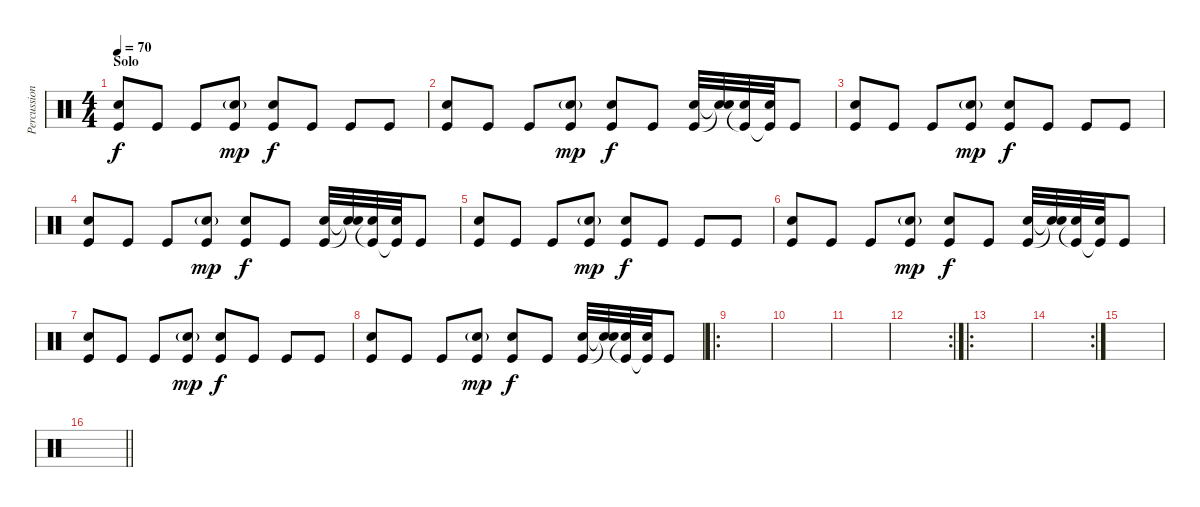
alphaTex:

\track ("Percussions" "Percussion") {instrument percussion}
\staff {score}
\articulation defaults
\ts (4 4)
\section ("" "Solo")
\tempo 70
\clef neutral
\ks c
("Kick (hit)" "Snare (hit) 2").8{dy f} "Kick (hit)".8 "Kick (hit)".8 ("Kick (hit)" "Snare (hit) 2"{g}).8{dy mp} ("Kick (hit)" "Snare (hit) 2").8{dy f} "Kick (hit)".8 "Kick (hit)".8 "Kick (hit)".8 |
("Kick (hit)" "Snare (hit) 2").8 "Kick (hit)".8 "Kick (hit)".8 ("Kick (hit)" "Snare (hit) 2"{g}).8{dy mp} ("Kick (hit)" "Snare (hit) 2").8{dy f} "Kick (hit)".8 ("Kick (hit)" "Snare (hit) 2").32 ("Snare (hit)"{t} "Snare (hit) 2"{t}).32 ("Kick (hit)"{t} "Snare (hit) 2").32 ("Kick (hit)"{t} "Snare (hit) 2").32 "Kick (hit)".8 |
("Kick (hit)" "Snare (hit) 2").8 "Kick (hit)".8 "Kick (hit)".8 ("Kick (hit)" "Snare (hit) 2"{g}).8{dy mp} ("Kick (hit)" "Snare (hit) 2").8{dy f} "Kick (hit)".8 "Kick (hit)".8 "Kick (hit)".8 |
("Kick (hit)" "Snare (hit) 2").8 "Kick (hit)".8 "Kick (hit)".8 ("Kick (hit)" "Snare (hit) 2"{g}).8{dy mp} ("Kick (hit)" "Snare (hit) 2").8{dy f} "Kick (hit)".8 ("Kick (hit)" "Snare (hit) 2").32 ("Snare (hit)"{t} "Snare (hit) 2"{t}).32 ("Kick (hit)"{t} "Snare (hit) 2").32 ("Kick (hit)"{t} "Snare (hit) 2").32 "Kick (hit)".8 |
("Kick (hit)" "Snare (hit) 2").8 "Kick (hit)".8 "Kick (hit)".8 ("Kick (hit)" "Snare (hit) 2"{g}).8{dy mp} ("Kick (hit)" "Snare (hit) 2").8{dy f} "Kick (hit)".8 "Kick (hit)".8 "Kick (hit)".8 |
("Kick (hit)" "Snare (hit) 2").8 "Kick (hit)".8 "Kick (hit)".8 ("Kick (hit)" "Snare (hit) 2"{g}).8{dy mp} ("Kick (hit)" "Snare (hit) 2").8{dy f} "Kick (hit)".8 ("Kick (hit)" "Snare (hit) 2").32 ("Snare (hit)"{t} "Snare (hit) 2"{t}).32 ("Kick (hit)"{t} "Snare (hit) 2").32 ("Kick (hit)"{t} "Snare (hit) 2").32 "Kick (hit)".8 |
("Kick (hit)" "Snare (hit) 2").8 "Kick (hit)".8 "Kick (hit)".8 ("Kick (hit)" "Snare (hit) 2"{g}).8{dy mp} ("Kick (hit)" "Snare (hit) 2").8{dy f} "Kick (hit)".8 "Kick (hit)".8 "Kick (hit)".8 |
("Kick (hit)" "Snare (hit) 2").8 "Kick (hit)".8 "Kick (hit)".8 ("Kick (hit)" "Snare (hit) 2"{g}).8{dy mp} ("Kick (hit)" "Snare (hit) 2").8{dy f} "Kick (hit)".8 ("Kick (hit)" "Snare (hit) 2").32 ("Snare (hit)"{t} "Snare (hit) 2"{t}).32 ("Kick (hit)"{t} "Snare (hit) 2").32 ("Kick (hit)"{t} "Snare (hit) 2").32 "Kick (hit)".8 |
\ro
|
|
|
\rc 2
|
\ro
|
\rc 2
|
|
\barLineRight lightlight
